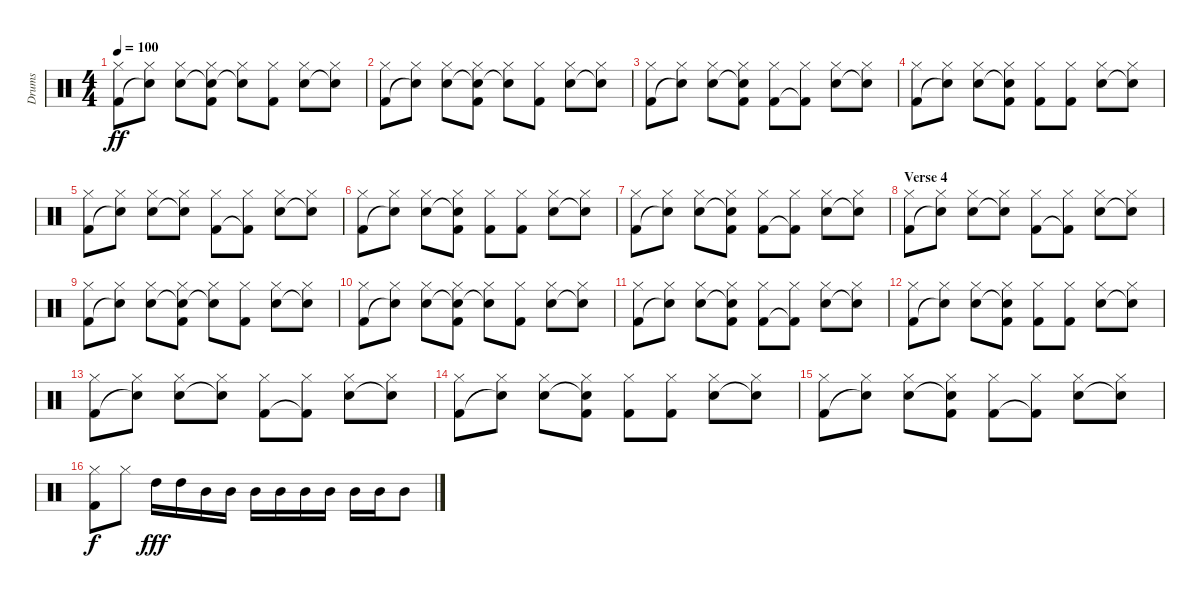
\track ("Drums" "Drums") {instrument percussion}
\staff {score}
\articulation defaults
\ts (4 4)
\tempo 100
\clef neutral
\ks c
("Hi-Hat (closed)" "Kick (hit) 2").8{dy ff} ("Hi-Hat (closed)" "Snare (hit)"{t}).8 ("Hi-Hat (closed)" "Snare (hit) 2").8 ("Hi-Hat (closed)" "Snare (hit)"{t} "Kick (hit) 2").8 ("Hi-Hat (closed)" "Snare (hit)"{t}).8 ("Hi-Hat (closed)" "Kick (hit) 2").8 ("Hi-Hat (closed)" "Snare (hit) 2").8 ("Hi-Hat (closed)" "Snare (hit)"{t}).8 |
("Hi-Hat (closed)" "Kick (hit) 2").8 ("Hi-Hat (closed)" "Snare (hit)"{t}).8 ("Hi-Hat (closed)" "Snare (hit) 2").8 ("Hi-Hat (closed)" "Snare (hit)"{t} "Kick (hit) 2").8 ("Hi-Hat (closed)" "Snare (hit)"{t}).8 ("Hi-Hat (closed)" "Kick (hit) 2").8 ("Hi-Hat (closed)" "Snare (hit) 2").8 ("Hi-Hat (closed)" "Snare (hit)"{t}).8 |
("Hi-Hat (closed)" "Kick (hit) 2").8 ("Hi-Hat (closed)" "Snare (hit)"{t}).8 ("Hi-Hat (closed)" "Snare (hit) 2").8 ("Hi-Hat (closed)" "Snare (hit)"{t} "Kick (hit) 2").8 ("Hi-Hat (closed)" "Kick (hit) 2").8 ("Hi-Hat (closed)" "Kick (hit) 2"{t}).8 ("Hi-Hat (closed)" "Snare (hit) 2").8 ("Hi-Hat (closed)" "Snare (hit)"{t}).8 |
("Hi-Hat (closed)" "Kick (hit) 2").8 ("Hi-Hat (closed)" "Snare (hit)"{t}).8 ("Hi-Hat (closed)" "Snare (hit) 2").8 ("Hi-Hat (closed)" "Snare (hit)"{t} "Kick (hit) 2").8 ("Hi-Hat (closed)" "Kick (hit) 2").8 ("Hi-Hat (closed)" "Kick (hit) 2").8 ("Hi-Hat (closed)" "Snare (hit) 2").8 ("Hi-Hat (closed)" "Snare (hit)"{t}).8 |
("Hi-Hat (closed)" "Kick (hit) 2").8 ("Hi-Hat (closed)" "Snare (hit)"{t}).8 ("Hi-Hat (closed)" "Snare (hit) 2").8 ("Hi-Hat (closed)" "Snare (hit)"{t}).8 ("Hi-Hat (closed)" "Kick (hit) 2").8 ("Hi-Hat (closed)" "Kick (hit) 2"{t}).8 ("Hi-Hat (closed)" "Snare (hit) 2").8 ("Hi-Hat (closed)" "Snare (hit)"{t}).8 |
("Hi-Hat (closed)" "Kick (hit) 2").8 ("Hi-Hat (closed)" "Snare (hit)"{t}).8 ("Hi-Hat (closed)" "Snare (hit) 2").8 ("Hi-Hat (closed)" "Snare (hit)"{t} "Kick (hit) 2").8 ("Hi-Hat (closed)" "Kick (hit) 2").8 ("Hi-Hat (closed)" "Kick (hit) 2").8 ("Hi-Hat (closed)" "Snare (hit) 2").8 ("Hi-Hat (closed)" "Snare (hit)"{t}).8 |
("Hi-Hat (closed)" "Kick (hit) 2").8 ("Hi-Hat (closed)" "Snare (hit)"{t}).8 ("Hi-Hat (closed)" "Snare (hit) 2").8 ("Hi-Hat (closed)" "Snare (hit)"{t} "Kick (hit) 2").8 ("Hi-Hat (closed)" "Kick (hit) 2").8 ("Hi-Hat (closed)" "Kick (hit) 2"{t}).8 ("Hi-Hat (closed)" "Snare (hit) 2").8 ("Hi-Hat (closed)" "Snare (hit)"{t}).8 |
\section ("" "Verse 4")
("Hi-Hat (closed)" "Kick (hit) 2").8 ("Hi-Hat (closed)" "Snare (hit)"{t}).8 ("Hi-Hat (closed)" "Snare (hit) 2").8 ("Hi-Hat (closed)" "Snare (hit)"{t}).8 ("Hi-Hat (closed)" "Kick (hit) 2").8 ("Hi-Hat (closed)" "Kick (hit) 2"{t}).8 ("Hi-Hat (closed)" "Snare (hit) 2").8 ("Hi-Hat (closed)" "Snare (hit)"{t}).8 |
("Hi-Hat (closed)" "Kick (hit) 2").8 ("Hi-Hat (closed)" "Snare (hit)"{t}).8 ("Hi-Hat (closed)" "Snare (hit) 2").8 ("Hi-Hat (closed)" "Snare (hit)"{t} "Kick (hit) 2").8 ("Hi-Hat (closed)" "Snare (hit)"{t}).8 ("Hi-Hat (closed)" "Kick (hit) 2").8 ("Hi-Hat (closed)" "Snare (hit) 2").8 ("Hi-Hat (closed)" "Snare (hit)"{t}).8 |
("Hi-Hat (closed)" "Kick (hit) 2").8 ("Hi-Hat (closed)" "Snare (hit)"{t}).8 ("Hi-Hat (closed)" "Snare (hit) 2").8 ("Hi-Hat (closed)" "Snare (hit)"{t} "Kick (hit) 2").8 ("Hi-Hat (closed)" "Snare (hit)"{t}).8 ("Hi-Hat (closed)" "Kick (hit) 2").8 ("Hi-Hat (closed)" "Snare (hit) 2").8 ("Hi-Hat (closed)" "Snare (hit)"{t}).8 |
("Hi-Hat (closed)" "Kick (hit) 2").8 ("Hi-Hat (closed)" "Snare (hit)"{t}).8 ("Hi-Hat (closed)" "Snare (hit) 2").8 ("Hi-Hat (closed)" "Snare (hit)"{t} "Kick (hit) 2").8 ("Hi-Hat (closed)" "Kick (hit) 2").8 ("Hi-Hat (closed)" "Kick (hit) 2"{t}).8 ("Hi-Hat (closed)" "Snare (hit) 2").8 ("Hi-Hat (closed)" "Snare (hit)"{t}).8 |
("Hi-Hat (closed)" "Kick (hit) 2").8 ("Hi-Hat (closed)" "Snare (hit)"{t}).8 ("Hi-Hat (closed)" "Snare (hit) 2").8 ("Hi-Hat (closed)" "Snare (hit)"{t} "Kick (hit) 2").8 ("Hi-Hat (closed)" "Kick (hit) 2").8 ("Hi-Hat (closed)" "Kick (hit) 2").8 ("Hi-Hat (closed)" "Snare (hit) 2").8 ("Hi-Hat (closed)" "Snare (hit)"{t}).8 |
("Hi-Hat (closed)" "Kick (hit) 2").8 ("Hi-Hat (closed)" "Snare (hit)"{t}).8 ("Hi-Hat (closed)" "Snare (hit) 2").8 ("Hi-Hat (closed)" "Snare (hit)"{t}).8 ("Hi-Hat (closed)" "Kick (hit) 2").8 ("Hi-Hat (closed)" "Kick (hit) 2"{t}).8 ("Hi-Hat (closed)" "Snare (hit) 2").8 ("Hi-Hat (closed)" "Snare (hit)"{t}).8 |
("Hi-Hat (closed)" "Kick (hit) 2").8 ("Hi-Hat (closed)" "Snare (hit)"{t}).8 ("Hi-Hat (closed)" "Snare (hit) 2").8 ("Hi-Hat (closed)" "Snare (hit)"{t} "Kick (hit) 2").8 ("Hi-Hat (closed)" "Kick (hit) 2").8 ("Hi-Hat (closed)" "Kick (hit) 2").8 ("Hi-Hat (closed)" "Snare (hit) 2").8 ("Hi-Hat (closed)" "Snare (hit)"{t}).8 |
("Hi-Hat (closed)" "Kick (hit) 2").8 ("Hi-Hat (closed)" "Snare (hit)"{t}).8 ("Hi-Hat (closed)" "Snare (hit) 2").8 ("Hi-Hat (closed)" "Snare (hit)"{t} "Kick (hit) 2").8 ("Hi-Hat (closed)" "Kick (hit) 2").8 ("Hi-Hat (closed)" "Kick (hit) 2"{t}).8 ("Hi-Hat (closed)" "Snare (hit) 2").8 ("Hi-Hat (closed)" "Snare (hit)"{t}).8 |
("Hi-Hat (closed)" "Kick (hit) 2").8{dy f} "Hi-Hat (closed)".8 "High Tom (hit)".16{dy fff} "High Tom (hit)".16 "Mid Tom (hit)".16 "Mid Tom (hit)".16 "Mid Tom (hit)".16 "Mid Tom (hit)".16 "Mid Tom (hit)".16 "Mid Tom (hit)".16 "Mid Tom (hit)".16 "Mid Tom (hit)".16 "Mid Tom (hit)".8
